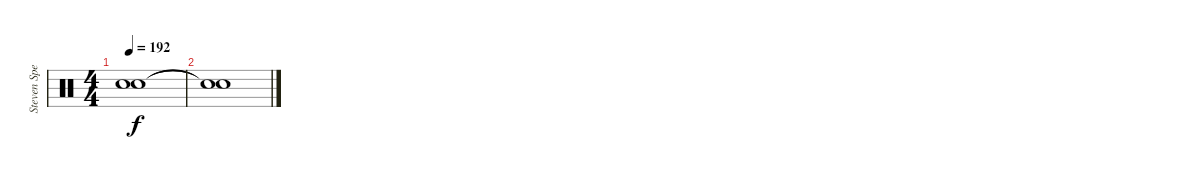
\track ("Steven Spence" "Steven Spe") {instrument percussion}
\staff {score}
\articulation defaults
\ts (4 4)
\tempo 192
\clef neutral
\ks c
("Snare (hit)"{t} "Snare (hit)"{t}).1{dy f} |
("Snare (hit)"{t} "Snare (hit)"{t}).1
